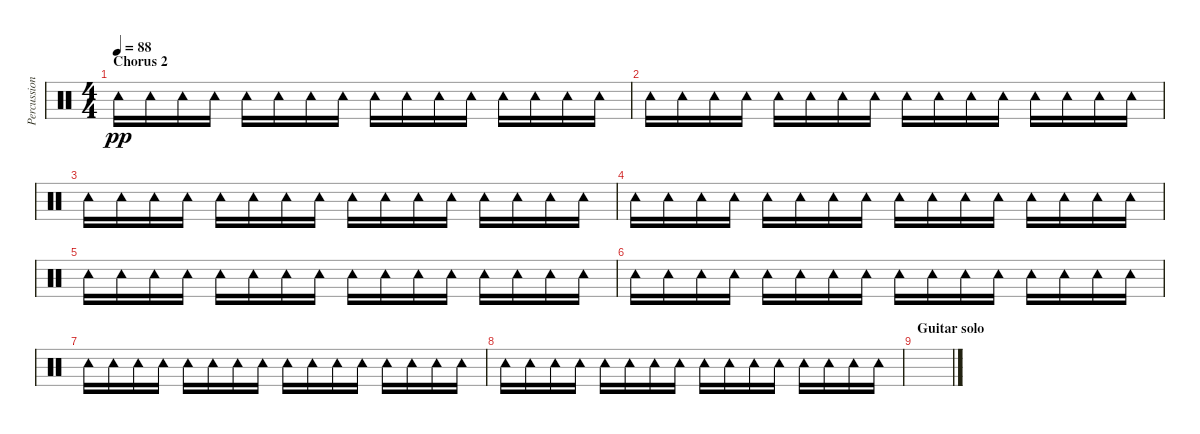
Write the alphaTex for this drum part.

\track ("Percussion" "Percussion") {instrument percussion}
\staff {score}
\articulation defaults
\ts (4 4)
\section ("" "Chorus 2")
\tempo 88
\clef neutral
\ks c "Tambourine (hit)".16{dy pp} "Tambourine (hit)".16 "Tambourine (hit)".16 "Tambourine (hit)".16 "Tambourine (hit)".16 "Tambourine (hit)".16 "Tambourine (hit)".16 "Tambourine (hit)".16 "Tambourine (hit)".16 "Tambourine (hit)".16 "Tambourine (hit)".16 "Tambourine (hit)".16 "Tambourine (hit)".16 "Tambourine (hit)".16 "Tambourine (hit)".16 "Tambourine (hit)".16
|
"Tambourine (hit)".16 "Tambourine (hit)".16 "Tambourine (hit)".16 "Tambourine (hit)".16 "Tambourine (hit)".16 "Tambourine (hit)".16 "Tambourine (hit)".16 "Tambourine (hit)".16 "Tambourine (hit)".16 "Tambourine (hit)".16 "Tambourine (hit)".16 "Tambourine (hit)".16 "Tambourine (hit)".16 "Tambourine (hit)".16 "Tambourine (hit)".16 "Tambourine (hit)".16 |
"Tambourine (hit)".16 "Tambourine (hit)".16 "Tambourine (hit)".16 "Tambourine (hit)".16 "Tambourine (hit)".16 "Tambourine (hit)".16 "Tambourine (hit)".16 "Tambourine (hit)".16 "Tambourine (hit)".16 "Tambourine (hit)".16 "Tambourine (hit)".16 "Tambourine (hit)".16 "Tambourine (hit)".16 "Tambourine (hit)".16 "Tambourine (hit)".16 "Tambourine (hit)".16 |
"Tambourine (hit)".16 "Tambourine (hit)".16 "Tambourine (hit)".16 "Tambourine (hit)".16 "Tambourine (hit)".16 "Tambourine (hit)".16 "Tambourine (hit)".16 "Tambourine (hit)".16 "Tambourine (hit)".16 "Tambourine (hit)".16 "Tambourine (hit)".16 "Tambourine (hit)".16 "Tambourine (hit)".16 "Tambourine (hit)".16 "Tambourine (hit)".16 "Tambourine (hit)".16 |
"Tambourine (hit)".16 "Tambourine (hit)".16 "Tambourine (hit)".16 "Tambourine (hit)".16 "Tambourine (hit)".16 "Tambourine (hit)".16 "Tambourine (hit)".16 "Tambourine (hit)".16 "Tambourine (hit)".16 "Tambourine (hit)".16 "Tambourine (hit)".16 "Tambourine (hit)".16 "Tambourine (hit)".16 "Tambourine (hit)".16 "Tambourine (hit)".16 "Tambourine (hit)".16 |
"Tambourine (hit)".16 "Tambourine (hit)".16 "Tambourine (hit)".16 "Tambourine (hit)".16 "Tambourine (hit)".16 "Tambourine (hit)".16 "Tambourine (hit)".16 "Tambourine (hit)".16 "Tambourine (hit)".16 "Tambourine (hit)".16 "Tambourine (hit)".16 "Tambourine (hit)".16 "Tambourine (hit)".16 "Tambourine (hit)".16 "Tambourine (hit)".16 "Tambourine (hit)".16 |
"Tambourine (hit)".16 "Tambourine (hit)".16 "Tambourine (hit)".16 "Tambourine (hit)".16 "Tambourine (hit)".16 "Tambourine (hit)".16 "Tambourine (hit)".16 "Tambourine (hit)".16 "Tambourine (hit)".16 "Tambourine (hit)".16 "Tambourine (hit)".16 "Tambourine (hit)".16 "Tambourine (hit)".16 "Tambourine (hit)".16 "Tambourine (hit)".16 "Tambourine (hit)".16 |
"Tambourine (hit)".16 "Tambourine (hit)".16 "Tambourine (hit)".16 "Tambourine (hit)".16 "Tambourine (hit)".16 "Tambourine (hit)".16 "Tambourine (hit)".16 "Tambourine (hit)".16 "Tambourine (hit)".16 "Tambourine (hit)".16 "Tambourine (hit)".16 "Tambourine (hit)".16 "Tambourine (hit)".16 "Tambourine (hit)".16 "Tambourine (hit)".16 "Tambourine (hit)".16 |
\section ("" "Guitar solo")
